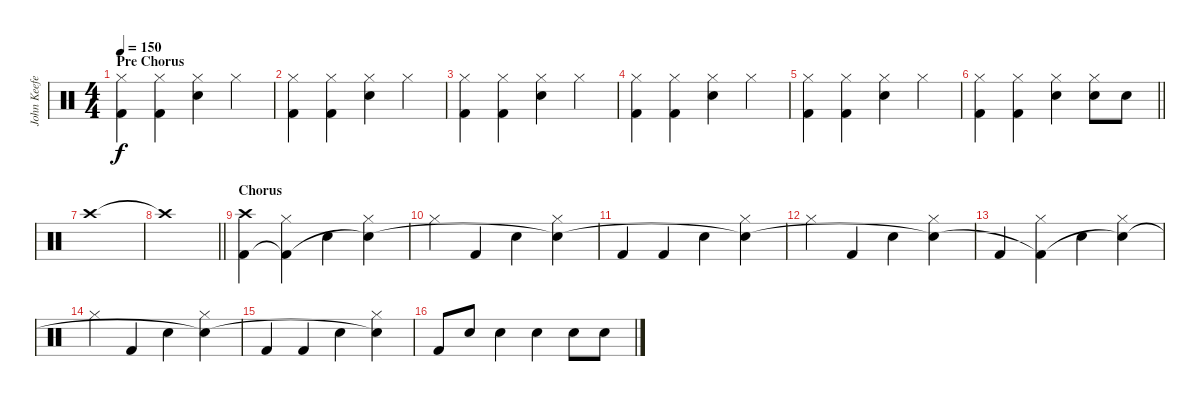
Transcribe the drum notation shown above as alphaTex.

\track ("John Keefe (Percussion)" "John Keefe") {instrument percussion}
\staff {score}
\articulation defaults
\ts (4 4)
\section ("" "Pre Chorus")
\tempo 150
\clef neutral
\ks c
("Hi-Hat (closed)" "Kick (hit) 2").4{dy f} ("Hi-Hat (closed)" "Kick (hit) 2").4 ("Hi-Hat (closed)" "Snare (hit) 2").4 "Hi-Hat (closed)".4 |
("Hi-Hat (closed)" "Kick (hit) 2").4 ("Hi-Hat (closed)" "Kick (hit) 2").4 ("Hi-Hat (closed)" "Snare (hit) 2").4 "Hi-Hat (closed)".4 |
("Hi-Hat (closed)" "Kick (hit) 2").4 ("Hi-Hat (closed)" "Kick (hit) 2").4 ("Hi-Hat (closed)" "Snare (hit) 2").4 "Hi-Hat (closed)".4 |
("Hi-Hat (closed)" "Kick (hit) 2").4 ("Hi-Hat (closed)" "Kick (hit) 2").4 ("Hi-Hat (closed)" "Snare (hit) 2").4 "Hi-Hat (closed)".4 |
("Hi-Hat (closed)" "Kick (hit) 2").4 ("Hi-Hat (closed)" "Kick (hit) 2").4 ("Hi-Hat (closed)" "Snare (hit) 2").4 "Hi-Hat (closed)".4 |
\barLineRight lightlight
("Hi-Hat (closed)" "Kick (hit) 2").4 ("Hi-Hat (closed)" "Kick (hit) 2").4 ("Hi-Hat (closed)" "Snare (hit) 2").4 ("Hi-Hat (closed)" "Snare (hit) 2").8 "Snare (hit) 2".8 |
"Crash high (hit)".1 |
\barLineRight lightlight "Crash high (hit)"{t}.1
|
\section ("" "Chorus")
("Crash high (hit)" "Kick (hit) 2").4 ("Hi-Hat (closed)" "Kick (hit) 2"{t}).4 "Snare (hit) 2".4 ("Hi-Hat (closed)" "Snare (hit) 2"{t}).4 |
"Hi-Hat (closed)".4 "Kick (hit) 2".4 "Snare (hit) 2".4 ("Hi-Hat (closed)" "Snare (hit) 2"{t}).4 |
"Kick (hit) 2".4 "Kick (hit) 2".4 "Snare (hit) 2".4 ("Hi-Hat (closed)" "Snare (hit) 2"{t}).4 |
"Hi-Hat (closed)".4 "Kick (hit) 2".4 "Snare (hit) 2".4 ("Hi-Hat (closed)" "Snare (hit) 2"{t}).4 |
"Kick (hit) 2".4 ("Hi-Hat (closed)" "Kick (hit) 2"{t}).4 "Snare (hit) 2".4 ("Hi-Hat (closed)" "Snare (hit) 2"{t}).4 |
"Hi-Hat (closed)".4 "Kick (hit) 2".4 "Snare (hit) 2".4 ("Hi-Hat (closed)" "Snare (hit) 2"{t}).4 |
"Kick (hit) 2".4 "Kick (hit) 2".4 "Snare (hit) 2".4 ("Hi-Hat (closed)" "Snare (hit) 2"{t}).4 |
"Kick (hit) 2".8 "Snare (hit) 2".8 "Snare (hit) 2".4 "Snare (hit) 2".4 "Snare (hit) 2".8 "Snare (hit) 2".8
